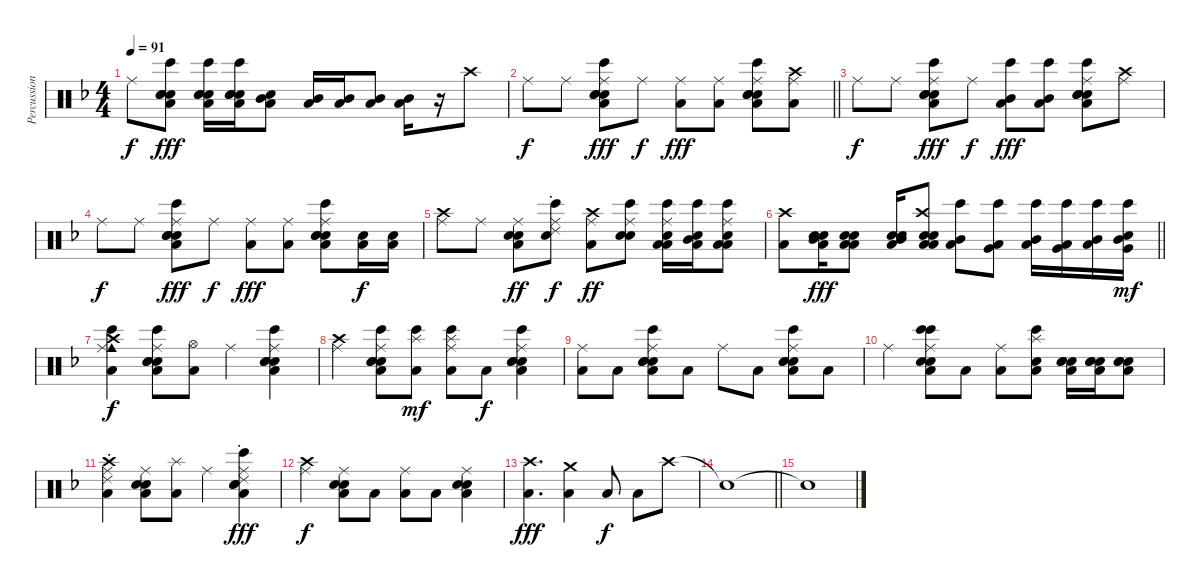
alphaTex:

\track ("Percussion" "Percussion") {instrument percussion}
\staff {score}
\articulation defaults
\ts (4 4)
\tempo 91
\clef neutral
\ks f "Ride (middle)".8{dy f}
("Bongo High (hit)" "Low Floor Tom (hit)" "Snare (hit) 2" "Hand Clap (hit)" "Electric Snare (hit)").8{dy fff} ("Electric Snare (hit)" "Low Floor Tom (hit)" "Snare (hit) 2" "Hand Clap (hit)" "Bongo High (hit)").16 ("Electric Snare (hit)" "Low Floor Tom (hit)" "Snare (hit) 2" "Hand Clap (hit)" "Bongo High (hit)").16 ("Low Floor Tom (hit)" "Mid Tom (hit)" "Snare (hit) 2").8 ("Low Floor Tom (hit)" "Mid Tom (hit)").16 ("Low Floor Tom (hit)" "Mid Tom (hit)").16 ("Low Floor Tom (hit)" "Mid Tom (hit)").8 ("Low Floor Tom (hit)" "Mid Tom (hit)").16 r.16 "Crash high (hit)".8 |
\barLineRight lightlight "Ride (middle)".8{dy f} "Ride (middle)".8
("Low Floor Tom (hit)" "Electric Snare (hit)" "Ride (middle)" "Snare (hit) 2" "Hand Clap (hit)" "Bongo High (hit)").8{dy fff} "Ride (middle)".8{dy f} ("Ride (middle)" "Low Floor Tom (hit)").8{dy fff} ("Ride (middle)" "Low Floor Tom (hit)").8 ("Bongo High (hit)" "Hand Clap (hit)" "Ride (middle)" "Low Floor Tom (hit)" "Snare (hit) 2" "Electric Snare (hit)").8 ("Low Floor Tom (hit)" "Ride (middle)" "Crash high (hit)").8 |
"Ride (middle)".8{dy f} "Ride (middle)".8 ("Low Floor Tom (hit)" "Electric Snare (hit)" "Ride (middle)" "Snare (hit) 2" "Hand Clap (hit)" "Bongo High (hit)").8{dy fff} "Ride (middle)".8{dy f} ("Low Floor Tom (hit)" "Mid Tom (hit)" "Bongo High (hit)").8{dy fff} ("Low Floor Tom (hit)" "Mid Tom (hit)" "Bongo High (hit)").8 ("Bongo High (hit)" "Hand Clap (hit)" "Ride (middle)" "Low Floor Tom (hit)" "Snare (hit) 2" "Electric Snare (hit)").8 ("Ride (middle)" "Crash high (hit)").8 |
"Ride (middle)".8{dy f} "Ride (middle)".8 ("Low Floor Tom (hit)" "Electric Snare (hit)" "Ride (middle)" "Snare (hit) 2" "Hand Clap (hit)" "Bongo High (hit)").8{dy fff} "Ride (middle)".8{dy f} ("Ride (middle)" "Low Floor Tom (hit)").8{dy fff} ("Ride (middle)" "Low Floor Tom (hit)").8 ("Bongo High (hit)" "Hand Clap (hit)" "Ride (middle)" "Low Floor Tom (hit)" "Snare (hit) 2" "Electric Snare (hit)").8 ("Low Floor Tom (hit)" "Snare (hit) 2").16{dy f} ("Low Floor Tom (hit)" "Snare (hit) 2").16 |
("Crash high (hit)" "Ride (middle)").8 "Ride (middle)".8 ("Low Floor Tom (hit)" "Ride (middle)" "Snare (hit) 2" "Electric Snare (hit)").8{dy ff} ("Ride (choke) 2" "Ride (middle)" "Bongo High (hit)" "Hand Clap (hit)").8{dy f} ("Low Floor Tom (hit)" "Ride (middle)" "Crash high (hit)").8{dy ff} ("Ride (middle)" "Snare (hit) 2" "Bongo High (hit)" "Hand Clap (hit)").8 ("Low Floor Tom (hit)" "Ride (middle)" "Low Tom (hit)" "Bongo High (hit)" "Hand Clap (hit)").16 ("Low Floor Tom (hit)" "Mid Tom (hit)" "Bongo High (hit)" "Hand Clap (hit)").16 ("Low Floor Tom (hit)" "Ride (middle)" "Low Tom (hit)" "Bongo High (hit)" "Hand Clap (hit)").8 |
\barLineRight lightlight
("Crash high (hit)" "Low Floor Tom (hit)").8 ("Hand Clap (hit)" "Snare (hit) 2" "Mid Tom (hit)" "Low Floor Tom (hit)").16{dy fff} ("Hand Clap (hit)" "Snare (hit) 2" "Low Tom (hit)" "Low Floor Tom (hit)").8 ("Snare (hit) 2" "Mid Tom (hit)" "Low Floor Tom (hit)" "Hand Clap (hit)").16 ("Snare (hit) 2" "Low Tom (hit)" "Crash high (hit)" "Low Floor Tom (hit)" "Hand Clap (hit)").8 ("Bongo High (hit)" "Mid Tom (hit)" "Low Floor Tom (hit)").8 ("Bongo High (hit)" "Low Tom (hit)" "Very Low Tom (hit)").8 ("Bongo High (hit)" "Mid Tom (hit)" "Low Floor Tom (hit)").16 ("Bongo High (hit)" "Low Tom (hit)" "Very Low Tom (hit)").16 ("Bongo High (hit)" "Mid Tom (hit)" "Low Floor Tom (hit)").16 ("Bongo High (hit)" "Mid Tom (hit)" "Very Low Tom (hit)" "Hand Clap (hit)").16{dy mf} |
("Bongo High (hit)" "Low Floor Tom (hit)" "Cowbell medium (hit)" "Ride (middle)" "Crash high (hit)").4{dy f} ("Hand Clap (hit)" "Low Floor Tom (hit)" "Snare (hit) 2" "Electric Snare (hit)" "Ride (middle)" "Bongo High (hit)").8 ("Low Floor Tom (hit)" "Hi-Hat (open)").8 "Ride (middle)".4 ("Hand Clap (hit)" "Electric Snare (hit)" "Snare (hit) 2" "Low Floor Tom (hit)" "Ride (middle)" "Bongo High (hit)").4 |
("Crash high (hit)" "Ride (middle)").4 ("Hand Clap (hit)" "Low Floor Tom (hit)" "Snare (hit) 2" "Electric Snare (hit)" "Ride (middle)" "Bongo High (hit)").8 ("Low Floor Tom (hit)" "Splash (hit)" "Bongo High (hit)").8{dy mf} ("Low Floor Tom (hit)" "Ride (middle)" "Splash (hit)" "Bongo High (hit)").8 "Low Floor Tom (hit)".8{dy f} ("Bongo High (hit)" "Electric Snare (hit)" "Low Floor Tom (hit)" "Ride (middle)" "Snare (hit) 2" "Hand Clap (hit)").4 |
("Low Floor Tom (hit)" "Ride (middle)").8 "Low Floor Tom (hit)".8 ("Hand Clap (hit)" "Electric Snare (hit)" "Low Floor Tom (hit)" "Snare (hit) 2" "Ride (middle)" "Bongo High (hit)").8 "Low Floor Tom (hit)".8 "Ride (middle)".8 "Low Floor Tom (hit)".8 ("Hand Clap (hit)" "Electric Snare (hit)" "Low Floor Tom (hit)" "Snare (hit) 2" "Ride (middle)" "Bongo High (hit)").8 "Low Floor Tom (hit)".8 |
"Ride (middle)".4 ("Bongo High (hit)" "Electric Snare (hit)" "Low Floor Tom (hit)" "Snare (hit) 2" "Ride (middle)" "Bongo High (hit)").8 "Low Floor Tom (hit)".8 ("Low Floor Tom (hit)" "Ride (middle)").8 ("Bongo High (hit)" "Low Floor Tom (hit)" "Snare (hit) 2" "Splash (hit)").8 ("Low Floor Tom (hit)" "Snare (hit) 2" "Electric Snare (hit)" "Hand Clap (hit)").16 ("Low Floor Tom (hit)" "Snare (hit) 2" "Electric Snare (hit)" "Hand Clap (hit)").16 ("Low Floor Tom (hit)" "Snare (hit) 2" "Electric Snare (hit)" "Hand Clap (hit)").8 |
("Low Floor Tom (hit)" "Crash high (hit)" "Ride (middle)" "Ride (choke) 2").4 ("Low Floor Tom (hit)" "Snare (hit) 2" "Electric Snare (hit)" "Ride (middle)").8 ("Low Floor Tom (hit)" "Splash (hit)").8 "Ride (middle)".4 ("Ride (choke) 2" "Electric Snare (hit)" "Snare (hit) 2" "Low Floor Tom (hit)" "Ride (middle)" "Bongo High (hit)").4{dy fff} |
("Crash high (hit)" "Ride (middle)").4{dy f} ("Low Floor Tom (hit)" "Snare (hit) 2" "Electric Snare (hit)" "Ride (middle)").8 "Low Floor Tom (hit)".8 ("Low Floor Tom (hit)" "Ride (middle)").8 "Low Floor Tom (hit)".8 ("Electric Snare (hit)" "Low Floor Tom (hit)" "Ride (middle)" "Snare (hit) 2").4 |
("Crash high (hit)" "Low Floor Tom (hit)").4{d dy fff} ("Crash medium (hit)" "Low Floor Tom (hit)").4 "Low Floor Tom (hit)".8{dy f} "Low Floor Tom (hit)".8 "Crash high (hit)".8 |
\barLineRight lightlight "Snare (hit)"{t}.1
|
"Snare (hit)"{t}.1
